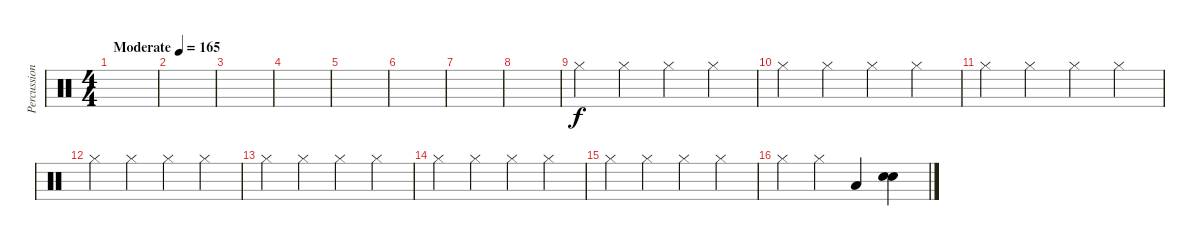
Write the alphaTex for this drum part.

\track ("Percussion" "Percussion") {instrument percussion}
\staff {score}
\articulation defaults
\ts (4 4)
\tempo (165 "Moderate")
\clef neutral
\ks c
|
|
|
|
|
|
|
|
"Hi-Hat (closed)".4 "Hi-Hat (closed)".4 "Hi-Hat (closed)".4 "Hi-Hat (closed)".4 |
"Hi-Hat (closed)".4 "Hi-Hat (closed)".4 "Hi-Hat (closed)".4 "Hi-Hat (closed)".4 |
"Hi-Hat (closed)".4 "Hi-Hat (closed)".4 "Hi-Hat (closed)".4 "Hi-Hat (closed)".4 |
"Hi-Hat (closed)".4 "Hi-Hat (closed)".4 "Hi-Hat (closed)".4 "Hi-Hat (closed)".4 |
"Hi-Hat (closed)".4 "Hi-Hat (closed)".4 "Hi-Hat (closed)".4 "Hi-Hat (closed)".4 |
"Hi-Hat (closed)".4 "Hi-Hat (closed)".4 "Hi-Hat (closed)".4 "Hi-Hat (closed)".4 |
"Hi-Hat (closed)".4 "Hi-Hat (closed)".4 "Hi-Hat (closed)".4 "Hi-Hat (closed)".4 |
"Hi-Hat (closed)".4 "Hi-Hat (closed)".4 "Low Tom (hit)".4 ("Electric Snare (hit)" "Electric Snare (hit)").4
